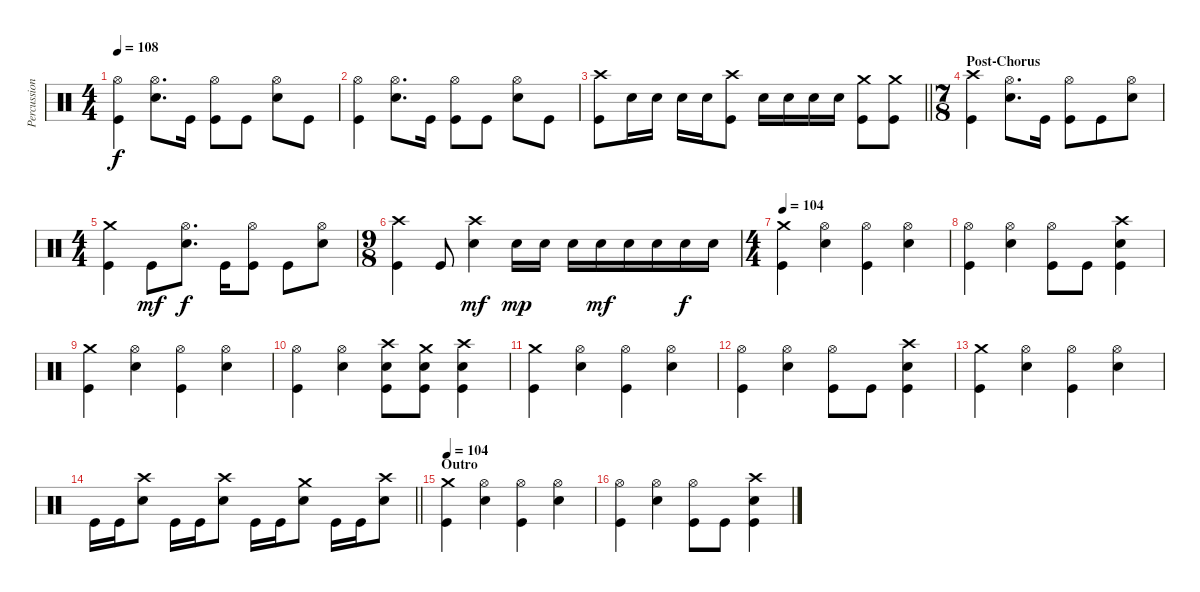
\track ("Percussions" "Percussion") {instrument percussion}
\staff {score}
\articulation defaults
\ts (4 4)
\tempo 108
\clef neutral
\ks c
("Hi-Hat (open)" "Kick (hit)").4{dy f} ("Hi-Hat (open)" "Electric Snare (hit)").8{d} "Kick (hit)".16 ("Hi-Hat (open)" "Kick (hit)").8 "Kick (hit)".8 ("Hi-Hat (open)" "Electric Snare (hit)").8 "Kick (hit)".8 |
("Hi-Hat (open)" "Kick (hit)").4 ("Hi-Hat (open)" "Electric Snare (hit)").8{d} "Kick (hit)".16 ("Hi-Hat (open)" "Kick (hit)").8 "Kick (hit)".8 ("Hi-Hat (open)" "Electric Snare (hit)").8 "Kick (hit)".8 |
\barLineRight lightlight
("Crash high (hit)" "Kick (hit)").8 "Electric Snare (hit)".16 "Electric Snare (hit)".16 "Electric Snare (hit)".16 "Electric Snare (hit)".16 ("Crash high (hit)" "Kick (hit)").8 "Electric Snare (hit)".16 "Electric Snare (hit)".16 "Electric Snare (hit)".16 "Electric Snare (hit)".16 ("Crash medium (hit)" "Kick (hit)").8 ("Crash medium (hit)" "Kick (hit)").8 |
\ts (7 8)
\section ("" "Post-Chorus")
("Crash high (hit)" "Kick (hit)").4 ("Hi-Hat (open)" "Electric Snare (hit)").8{d} "Kick (hit)".16 ("Hi-Hat (open)" "Kick (hit)").8 "Kick (hit)".8 ("Hi-Hat (open)" "Electric Snare (hit)").8 |
\ts (4 4)
("Crash medium (hit)" "Kick (hit)").4 "Kick (hit)".8{dy mf} ("Hi-Hat (open)" "Electric Snare (hit)").8{d dy f} "Kick (hit)".16 ("Hi-Hat (open)" "Kick (hit)").8 "Kick (hit)".8 ("Hi-Hat (open)" "Electric Snare (hit)").8 |
\ts (9 8)
("Crash high (hit)" "Kick (hit)").4 "Kick (hit)".8 ("Crash high (hit)" "Electric Snare (hit)").4{dy mf} "Electric Snare (hit)".16{dy mp} "Electric Snare (hit)".16 "Electric Snare (hit)".16 "Electric Snare (hit)".16{dy mf} "Electric Snare (hit)".16 "Electric Snare (hit)".16 "Electric Snare (hit)".16{dy f} "Electric Snare (hit)".16 |
\ts (4 4)
\tempo 104
("Crash medium (hit)" "Kick (hit)").4 ("Hi-Hat (open)" "Electric Snare (hit)").4 ("Hi-Hat (open)" "Kick (hit)").4 ("Hi-Hat (open)" "Electric Snare (hit)").4 |
("Hi-Hat (open)" "Kick (hit)").4 ("Hi-Hat (open)" "Electric Snare (hit)").4 ("Hi-Hat (open)" "Kick (hit)").8 "Kick (hit)".8 ("Crash high (hit)" "Electric Snare (hit)" "Kick (hit)").4 |
("Crash medium (hit)" "Kick (hit)").4 ("Hi-Hat (open)" "Electric Snare (hit)").4 ("Hi-Hat (open)" "Kick (hit)").4 ("Hi-Hat (open)" "Electric Snare (hit)").4 |
("Hi-Hat (open)" "Kick (hit)").4 ("Hi-Hat (open)" "Electric Snare (hit)").4 ("Crash high (hit)" "Electric Snare (hit)" "Kick (hit)").8 ("Crash medium (hit)" "Electric Snare (hit)" "Kick (hit)").8 ("Crash high (hit)" "Electric Snare (hit)" "Kick (hit)").4 |
("Crash medium (hit)" "Kick (hit)").4 ("Hi-Hat (open)" "Electric Snare (hit)").4 ("Hi-Hat (open)" "Kick (hit)").4 ("Hi-Hat (open)" "Electric Snare (hit)").4 |
("Hi-Hat (open)" "Kick (hit)").4 ("Hi-Hat (open)" "Electric Snare (hit)").4 ("Hi-Hat (open)" "Kick (hit)").8 "Kick (hit)".8 ("Crash high (hit)" "Electric Snare (hit)" "Kick (hit)").4 |
("Crash medium (hit)" "Kick (hit)").4 ("Hi-Hat (open)" "Electric Snare (hit)").4 ("Hi-Hat (open)" "Kick (hit)").4 ("Hi-Hat (open)" "Electric Snare (hit)").4 |
\barLineRight lightlight "Kick (hit)".16 "Kick (hit)".16
("Crash high (hit)" "Electric Snare (hit)").8 "Kick (hit)".16 "Kick (hit)".16 ("Crash high (hit)" "Electric Snare (hit)").8 "Kick (hit)".16 "Kick (hit)".16 ("Crash medium (hit)" "Electric Snare (hit)").8 "Kick (hit)".16 "Kick (hit)".16 ("Crash high (hit)" "Electric Snare (hit)").8 |
\section ("" "Outro")
\tempo 104
("Crash medium (hit)" "Kick (hit)").4 ("Hi-Hat (open)" "Electric Snare (hit)").4 ("Hi-Hat (open)" "Kick (hit)").4 ("Hi-Hat (open)" "Electric Snare (hit)").4 |
("Hi-Hat (open)" "Kick (hit)").4 ("Hi-Hat (open)" "Electric Snare (hit)").4 ("Hi-Hat (open)" "Kick (hit)").8 "Kick (hit)".8 ("Crash high (hit)" "Electric Snare (hit)" "Kick (hit)").4
